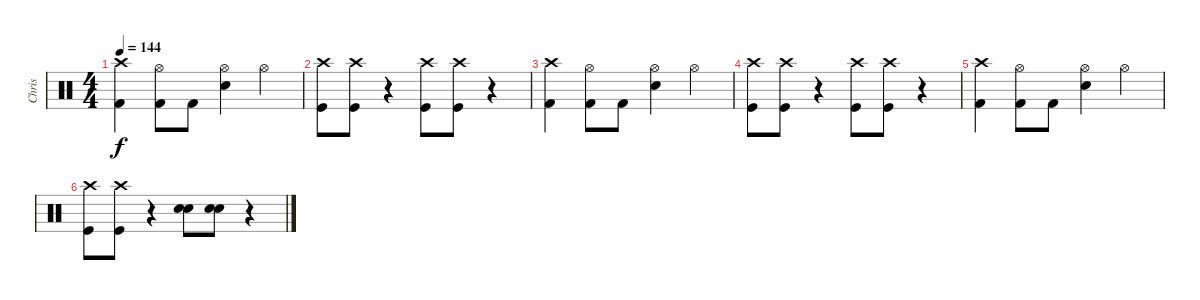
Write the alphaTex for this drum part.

\track ("Chris" "Chris") {instrument percussion}
\staff {score}
\articulation defaults
\ts (4 4)
\tempo 144
\clef neutral
\ks c
("Crash high (hit)" "Kick (hit) 2").4{dy f} ("Hi-Hat (open)" "Kick (hit) 2").8 "Kick (hit) 2".8 ("Hi-Hat (open)" "Electric Snare (hit)").4 "Hi-Hat (open)".4 |
("Crash high (hit)" "Kick (hit)").8 ("Crash high (hit)" "Kick (hit)").8 r.4 ("Crash high (hit)" "Kick (hit)").8 ("Crash high (hit)" "Kick (hit)").8 r.4 |
("Crash high (hit)" "Kick (hit) 2").4 ("Hi-Hat (open)" "Kick (hit) 2").8 "Kick (hit) 2".8 ("Hi-Hat (open)" "Electric Snare (hit)").4 "Hi-Hat (open)".4 |
("Crash high (hit)" "Kick (hit)").8 ("Crash high (hit)" "Kick (hit)").8 r.4 ("Crash high (hit)" "Kick (hit)").8 ("Crash high (hit)" "Kick (hit)").8 r.4 |
("Crash high (hit)" "Kick (hit) 2").4 ("Hi-Hat (open)" "Kick (hit) 2").8 "Kick (hit) 2".8 ("Hi-Hat (open)" "Electric Snare (hit)").4 "Hi-Hat (open)".4 |
("Crash high (hit)" "Kick (hit)").8 ("Crash high (hit)" "Kick (hit)").8 r.4 ("Electric Snare (hit)" "Electric Snare (hit)").8 ("Electric Snare (hit)" "Electric Snare (hit)").8 r.4
